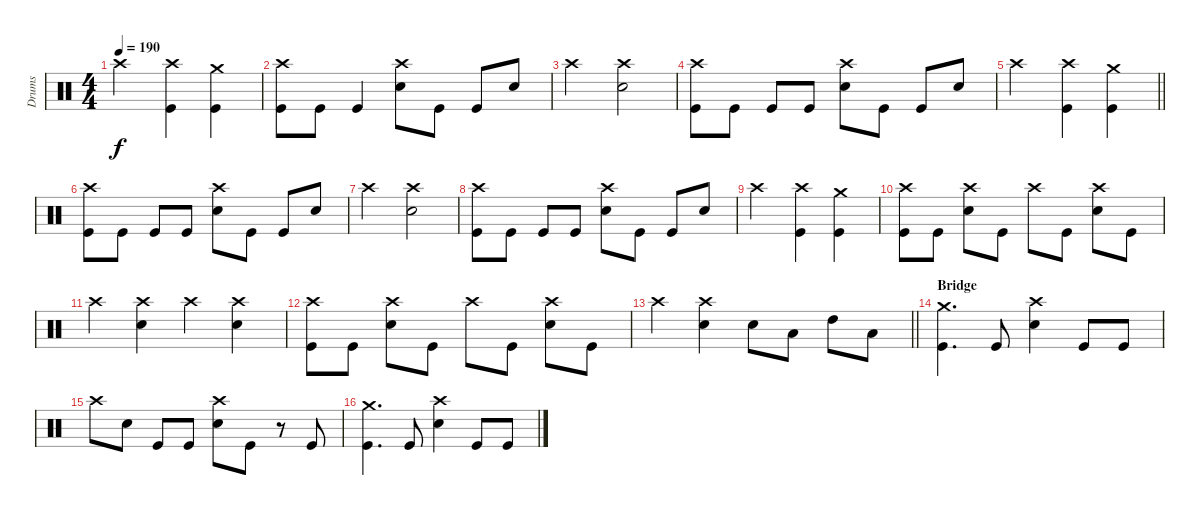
\track ("Drums" "Drums") {instrument percussion}
\staff {score}
\articulation defaults
\ts (4 4)
\tempo 190
\clef neutral
\ks c "Crash high (hit)".2{dy f}
("Crash high (hit)" "Kick (hit)").4 ("Crash medium (hit)" "Kick (hit)").4 |
("Crash high (hit)" "Kick (hit)").8 "Kick (hit)".8 "Kick (hit)".4 ("Crash high (hit)" "Snare (hit) 2").8 "Kick (hit)".8 "Kick (hit)".8 "Snare (hit) 2".8 |
"Crash high (hit)".2 ("Crash high (hit)" "Snare (hit) 2").2 |
("Crash high (hit)" "Kick (hit)").8 "Kick (hit)".8 "Kick (hit)".8 "Kick (hit)".8 ("Crash high (hit)" "Snare (hit) 2").8 "Kick (hit)".8 "Kick (hit)".8 "Snare (hit) 2".8 |
\barLineRight lightlight "Crash high (hit)".2
("Crash high (hit)" "Kick (hit)").4 ("Crash medium (hit)" "Kick (hit)").4 |
("Crash high (hit)" "Kick (hit)").8 "Kick (hit)".8 "Kick (hit)".8 "Kick (hit)".8 ("Crash high (hit)" "Snare (hit) 2").8 "Kick (hit)".8 "Kick (hit)".8 "Snare (hit) 2".8 |
"Crash high (hit)".2 ("Crash high (hit)" "Snare (hit) 2").2 |
("Crash high (hit)" "Kick (hit)").8 "Kick (hit)".8 "Kick (hit)".8 "Kick (hit)".8 ("Crash high (hit)" "Snare (hit) 2").8 "Kick (hit)".8 "Kick (hit)".8 "Snare (hit) 2".8 |
"Crash high (hit)".2 ("Crash high (hit)" "Kick (hit)").4 ("Crash medium (hit)" "Kick (hit)").4 |
("Crash high (hit)" "Kick (hit)").8 "Kick (hit)".8 ("Crash high (hit)" "Snare (hit) 2").8 "Kick (hit)".8 "Crash high (hit)".8 "Kick (hit)".8 ("Crash high (hit)" "Snare (hit) 2").8 "Kick (hit)".8 |
"Crash high (hit)".4 ("Crash high (hit)" "Snare (hit) 2").4 "Crash high (hit)".4 ("Crash high (hit)" "Snare (hit) 2").4 |
("Crash high (hit)" "Kick (hit)").8 "Kick (hit)".8 ("Crash high (hit)" "Snare (hit) 2").8 "Kick (hit)".8 "Crash high (hit)".8 "Kick (hit)".8 ("Crash high (hit)" "Snare (hit) 2").8 "Kick (hit)".8 |
\barLineRight lightlight "Crash high (hit)".4
("Crash high (hit)" "Snare (hit) 2").4 "Snare (hit) 2".8 "Low Tom (hit)".8 "High Tom (hit)".8 "Low Tom (hit)".8 |
\section ("" "Bridge")
("Crash medium (hit)" "Kick (hit)").4{d} "Kick (hit)".8 ("Crash high (hit)" "Snare (hit) 2").4 "Kick (hit)".8 "Kick (hit)".8 |
"Crash high (hit)".8 "Snare (hit) 2".8 "Kick (hit)".8 "Kick (hit)".8 ("Crash high (hit)" "Snare (hit) 2").8 "Kick (hit)".8 r.8 "Kick (hit)".8 |
("Crash medium (hit)" "Kick (hit)").4{d} "Kick (hit)".8 ("Crash high (hit)" "Snare (hit) 2").4 "Kick (hit)".8 "Kick (hit)".8
